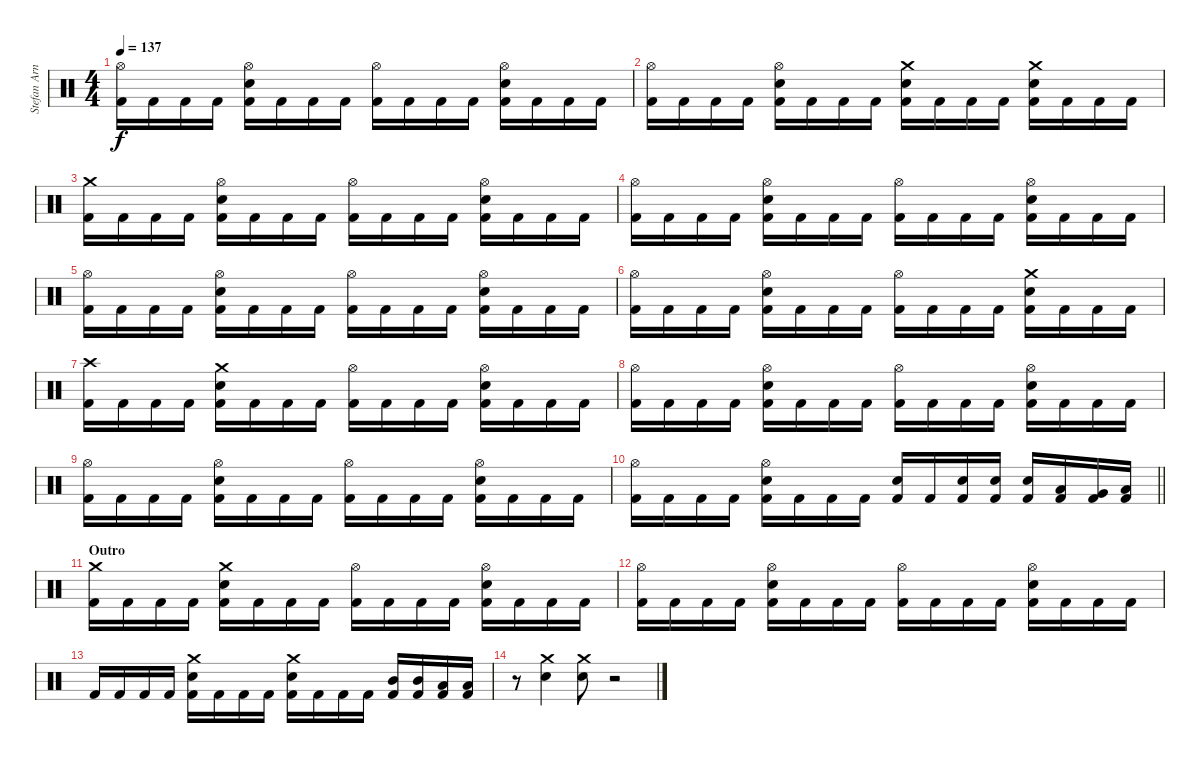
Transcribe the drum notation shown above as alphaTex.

\track ("Stefan Arnold" "Stefan Arn") {instrument percussion}
\staff {score}
\articulation defaults
\ts (4 4)
\tempo 137
\clef neutral
\ks c
("Hi-Hat (open)" "Kick (hit) 2").16{dy f} "Kick (hit) 2".16 "Kick (hit) 2".16 "Kick (hit) 2".16 ("Hi-Hat (open)" "Electric Snare (hit)" "Kick (hit) 2").16 "Kick (hit) 2".16 "Kick (hit) 2".16 "Kick (hit) 2".16 ("Hi-Hat (open)" "Kick (hit) 2").16 "Kick (hit) 2".16 "Kick (hit) 2".16 "Kick (hit) 2".16 ("Hi-Hat (open)" "Electric Snare (hit)" "Kick (hit) 2").16 "Kick (hit) 2".16 "Kick (hit) 2".16 "Kick (hit) 2".16 |
("Hi-Hat (open)" "Kick (hit) 2").16 "Kick (hit) 2".16 "Kick (hit) 2".16 "Kick (hit) 2".16 ("Hi-Hat (open)" "Electric Snare (hit)" "Kick (hit) 2").16 "Kick (hit) 2".16 "Kick (hit) 2".16 "Kick (hit) 2".16 ("Crash medium (hit)" "Electric Snare (hit)" "Kick (hit) 2").16 "Kick (hit) 2".16 "Kick (hit) 2".16 "Kick (hit) 2".16 ("Crash medium (hit)" "Electric Snare (hit)" "Kick (hit) 2").16 "Kick (hit) 2".16 "Kick (hit) 2".16 "Kick (hit) 2".16 |
("Crash medium (hit)" "Kick (hit) 2").16 "Kick (hit) 2".16 "Kick (hit) 2".16 "Kick (hit) 2".16 ("Hi-Hat (open)" "Electric Snare (hit)" "Kick (hit) 2").16 "Kick (hit) 2".16 "Kick (hit) 2".16 "Kick (hit) 2".16 ("Hi-Hat (open)" "Kick (hit) 2").16 "Kick (hit) 2".16 "Kick (hit) 2".16 "Kick (hit) 2".16 ("Hi-Hat (open)" "Electric Snare (hit)" "Kick (hit) 2").16 "Kick (hit) 2".16 "Kick (hit) 2".16 "Kick (hit) 2".16 |
("Hi-Hat (open)" "Kick (hit) 2").16 "Kick (hit) 2".16 "Kick (hit) 2".16 "Kick (hit) 2".16 ("Hi-Hat (open)" "Electric Snare (hit)" "Kick (hit) 2").16 "Kick (hit) 2".16 "Kick (hit) 2".16 "Kick (hit) 2".16 ("Hi-Hat (open)" "Kick (hit) 2").16 "Kick (hit) 2".16 "Kick (hit) 2".16 "Kick (hit) 2".16 ("Hi-Hat (open)" "Electric Snare (hit)" "Kick (hit) 2").16 "Kick (hit) 2".16 "Kick (hit) 2".16 "Kick (hit) 2".16 |
("Hi-Hat (open)" "Kick (hit) 2").16 "Kick (hit) 2".16 "Kick (hit) 2".16 "Kick (hit) 2".16 ("Hi-Hat (open)" "Electric Snare (hit)" "Kick (hit) 2").16 "Kick (hit) 2".16 "Kick (hit) 2".16 "Kick (hit) 2".16 ("Hi-Hat (open)" "Kick (hit) 2").16 "Kick (hit) 2".16 "Kick (hit) 2".16 "Kick (hit) 2".16 ("Hi-Hat (open)" "Electric Snare (hit)" "Kick (hit) 2").16 "Kick (hit) 2".16 "Kick (hit) 2".16 "Kick (hit) 2".16 |
("Hi-Hat (open)" "Kick (hit) 2").16 "Kick (hit) 2".16 "Kick (hit) 2".16 "Kick (hit) 2".16 ("Hi-Hat (open)" "Electric Snare (hit)" "Kick (hit) 2").16 "Kick (hit) 2".16 "Kick (hit) 2".16 "Kick (hit) 2".16 ("Hi-Hat (open)" "Kick (hit) 2").16 "Kick (hit) 2".16 "Kick (hit) 2".16 "Kick (hit) 2".16 ("Crash medium (hit)" "Electric Snare (hit)" "Kick (hit) 2").16 "Kick (hit) 2".16 "Kick (hit) 2".16 "Kick (hit) 2".16 |
("Crash high (hit)" "Kick (hit) 2").16 "Kick (hit) 2".16 "Kick (hit) 2".16 "Kick (hit) 2".16 ("Crash medium (hit)" "Electric Snare (hit)" "Kick (hit) 2").16 "Kick (hit) 2".16 "Kick (hit) 2".16 "Kick (hit) 2".16 ("Hi-Hat (open)" "Kick (hit) 2").16 "Kick (hit) 2".16 "Kick (hit) 2".16 "Kick (hit) 2".16 ("Hi-Hat (open)" "Electric Snare (hit)" "Kick (hit) 2").16 "Kick (hit) 2".16 "Kick (hit) 2".16 "Kick (hit) 2".16 |
("Hi-Hat (open)" "Kick (hit) 2").16 "Kick (hit) 2".16 "Kick (hit) 2".16 "Kick (hit) 2".16 ("Hi-Hat (open)" "Electric Snare (hit)" "Kick (hit) 2").16 "Kick (hit) 2".16 "Kick (hit) 2".16 "Kick (hit) 2".16 ("Hi-Hat (open)" "Kick (hit) 2").16 "Kick (hit) 2".16 "Kick (hit) 2".16 "Kick (hit) 2".16 ("Hi-Hat (open)" "Electric Snare (hit)" "Kick (hit) 2").16 "Kick (hit) 2".16 "Kick (hit) 2".16 "Kick (hit) 2".16 |
("Hi-Hat (open)" "Kick (hit) 2").16 "Kick (hit) 2".16 "Kick (hit) 2".16 "Kick (hit) 2".16 ("Hi-Hat (open)" "Electric Snare (hit)" "Kick (hit) 2").16 "Kick (hit) 2".16 "Kick (hit) 2".16 "Kick (hit) 2".16 ("Hi-Hat (open)" "Kick (hit) 2").16 "Kick (hit) 2".16 "Kick (hit) 2".16 "Kick (hit) 2".16 ("Hi-Hat (open)" "Electric Snare (hit)" "Kick (hit) 2").16 "Kick (hit) 2".16 "Kick (hit) 2".16 "Kick (hit) 2".16 |
\barLineRight lightlight
("Hi-Hat (open)" "Kick (hit) 2").16 "Kick (hit) 2".16 "Kick (hit) 2".16 "Kick (hit) 2".16 ("Hi-Hat (open)" "Electric Snare (hit)" "Kick (hit) 2").16 "Kick (hit) 2".16 "Kick (hit) 2".16 "Kick (hit) 2".16 ("Electric Snare (hit)" "Kick (hit) 2").16 "Kick (hit) 2".16 ("Electric Snare (hit)" "Kick (hit) 2").16 ("Electric Snare (hit)" "Kick (hit) 2").16 ("Electric Snare (hit)" "Kick (hit) 2").16 ("Low Tom (hit)" "Kick (hit) 2").16 ("Very Low Tom (hit)" "Kick (hit) 2").16 ("Low Floor Tom (hit)" "Kick (hit) 2").16 |
\section ("" "Outro")
("Crash medium (hit)" "Kick (hit) 2").16 "Kick (hit) 2".16 "Kick (hit) 2".16 "Kick (hit) 2".16 ("Crash medium (hit)" "Electric Snare (hit)" "Kick (hit) 2").16 "Kick (hit) 2".16 "Kick (hit) 2".16 "Kick (hit) 2".16 ("Hi-Hat (open)" "Kick (hit) 2").16 "Kick (hit) 2".16 "Kick (hit) 2".16 "Kick (hit) 2".16 ("Hi-Hat (open)" "Electric Snare (hit)" "Kick (hit) 2").16 "Kick (hit) 2".16 "Kick (hit) 2".16 "Kick (hit) 2".16 |
("Hi-Hat (open)" "Kick (hit) 2").16 "Kick (hit) 2".16 "Kick (hit) 2".16 "Kick (hit) 2".16 ("Hi-Hat (open)" "Electric Snare (hit)" "Kick (hit) 2").16 "Kick (hit) 2".16 "Kick (hit) 2".16 "Kick (hit) 2".16 ("Hi-Hat (open)" "Kick (hit) 2").16 "Kick (hit) 2".16 "Kick (hit) 2".16 "Kick (hit) 2".16 ("Hi-Hat (open)" "Electric Snare (hit)" "Kick (hit) 2").16 "Kick (hit) 2".16 "Kick (hit) 2".16 "Kick (hit) 2".16 |
"Kick (hit) 2".16 "Kick (hit) 2".16 "Kick (hit) 2".16 "Kick (hit) 2".16 ("Crash medium (hit)" "Electric Snare (hit)" "Kick (hit) 2").16 "Kick (hit) 2".16 "Kick (hit) 2".16 "Kick (hit) 2".16 ("Crash medium (hit)" "Electric Snare (hit)" "Kick (hit) 2").16 "Kick (hit) 2".16 "Kick (hit) 2".16 "Kick (hit) 2".16 ("Mid Tom (hit)" "Kick (hit) 2").16 ("Mid Tom (hit)" "Kick (hit) 2").16 ("Low Tom (hit)" "Kick (hit) 2").16 ("Low Tom (hit)" "Kick (hit) 2").16 |
r.8 ("Crash medium (hit)" "Electric Snare (hit)").4 ("Crash medium (hit)" "Electric Snare (hit)").8 r.2
